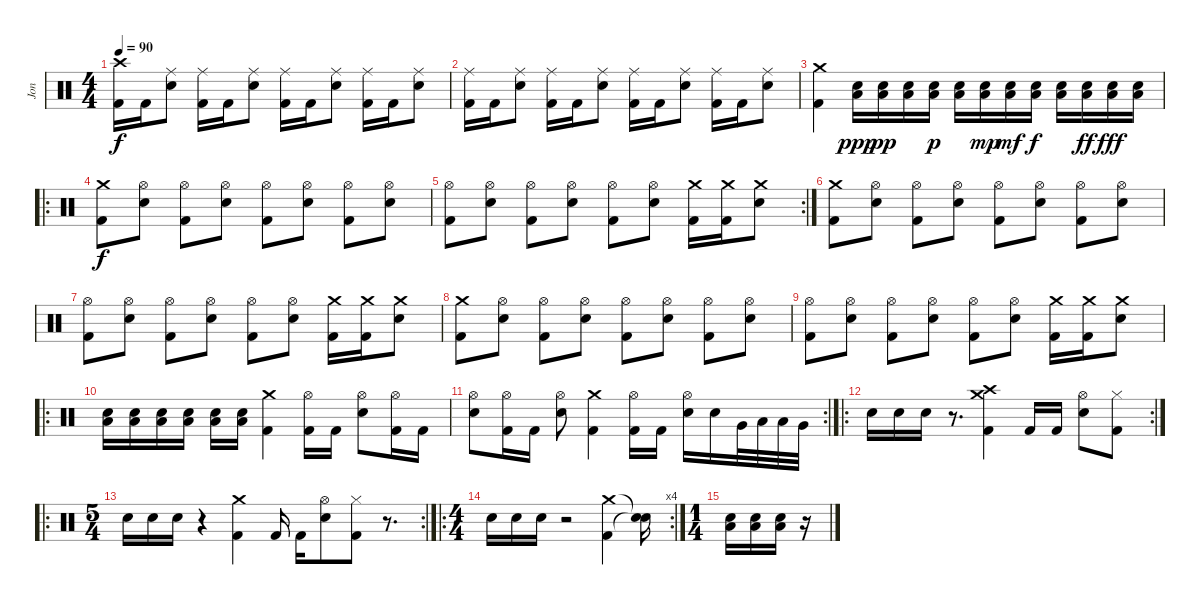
\track ("Jon" "Jon") {instrument percussion}
\staff {score}
\articulation defaults
\ts (4 4)
\tempo 90
\clef neutral
\ks c
("Crash high (hit)" "Kick (hit) 2").16{dy f} "Kick (hit) 2".16 ("Ride (middle)" "Snare (hit) 2").8 ("Ride (middle)" "Kick (hit) 2").16 "Kick (hit) 2".16 ("Ride (middle)" "Snare (hit) 2").8 ("Ride (middle)" "Kick (hit) 2").16 "Kick (hit) 2".16 ("Ride (middle)" "Snare (hit) 2").8 ("Ride (middle)" "Kick (hit) 2").16 "Kick (hit) 2".16 ("Ride (middle)" "Snare (hit) 2").8 |
("Ride (middle)" "Kick (hit) 2").16 "Kick (hit) 2".16 ("Ride (middle)" "Snare (hit) 2").8 ("Ride (middle)" "Kick (hit) 2").16 "Kick (hit) 2".16 ("Ride (middle)" "Snare (hit) 2").8 ("Ride (middle)" "Kick (hit) 2").16 "Kick (hit) 2".16 ("Ride (middle)" "Snare (hit) 2").8 ("Ride (middle)" "Kick (hit) 2").16 "Kick (hit) 2".16 ("Ride (middle)" "Snare (hit) 2").8 |
("Crash medium (hit)" "Kick (hit) 2").4 ("Snare (hit) 2" "Low Floor Tom (hit)").16{dy ppp} ("Snare (hit) 2" "Low Floor Tom (hit)").16{dy pp} ("Snare (hit) 2" "Low Floor Tom (hit)").16 ("Snare (hit) 2" "Low Floor Tom (hit)").16{dy p} ("Snare (hit) 2" "Low Floor Tom (hit)").16 ("Snare (hit) 2" "Low Floor Tom (hit)").16{dy mp} ("Snare (hit) 2" "Low Floor Tom (hit)").16{dy mf} ("Snare (hit) 2" "Low Floor Tom (hit)").16{dy f} ("Snare (hit) 2" "Low Floor Tom (hit)").16 ("Snare (hit) 2" "Low Floor Tom (hit)").16{dy ff} ("Snare (hit) 2" "Low Floor Tom (hit)").16{dy fff} ("Snare (hit) 2" "Low Floor Tom (hit)").16 |
\ro
("Crash medium (hit)" "Kick (hit) 2").8{dy f} ("Hi-Hat (open)" "Snare (hit) 2").8 ("Hi-Hat (open)" "Kick (hit) 2").8 ("Hi-Hat (open)" "Snare (hit) 2").8 ("Hi-Hat (open)" "Kick (hit) 2").8 ("Hi-Hat (open)" "Snare (hit) 2").8 ("Hi-Hat (open)" "Kick (hit) 2").8 ("Hi-Hat (open)" "Snare (hit) 2").8 |
\rc 2
("Hi-Hat (open)" "Kick (hit) 2").8 ("Hi-Hat (open)" "Snare (hit) 2").8 ("Hi-Hat (open)" "Kick (hit) 2").8 ("Hi-Hat (open)" "Snare (hit) 2").8 ("Hi-Hat (open)" "Kick (hit) 2").8 ("Hi-Hat (open)" "Snare (hit) 2").8 ("Crash medium (hit)" "Kick (hit) 2").16 ("Crash medium (hit)" "Kick (hit) 2").16 ("Crash medium (hit)" "Snare (hit) 2").8 |
("Crash medium (hit)" "Kick (hit) 2").8 ("Hi-Hat (open)" "Snare (hit) 2").8 ("Hi-Hat (open)" "Kick (hit) 2").8 ("Hi-Hat (open)" "Snare (hit) 2").8 ("Hi-Hat (open)" "Kick (hit) 2").8 ("Hi-Hat (open)" "Snare (hit) 2").8 ("Hi-Hat (open)" "Kick (hit) 2").8 ("Hi-Hat (open)" "Snare (hit) 2").8 |
("Hi-Hat (open)" "Kick (hit) 2").8 ("Hi-Hat (open)" "Snare (hit) 2").8 ("Hi-Hat (open)" "Kick (hit) 2").8 ("Hi-Hat (open)" "Snare (hit) 2").8 ("Hi-Hat (open)" "Kick (hit) 2").8 ("Hi-Hat (open)" "Snare (hit) 2").8 ("Crash medium (hit)" "Kick (hit) 2").16 ("Crash medium (hit)" "Kick (hit) 2").16 ("Crash medium (hit)" "Snare (hit) 2").8 |
("Crash medium (hit)" "Kick (hit) 2").8 ("Hi-Hat (open)" "Snare (hit) 2").8 ("Hi-Hat (open)" "Kick (hit) 2").8 ("Hi-Hat (open)" "Snare (hit) 2").8 ("Hi-Hat (open)" "Kick (hit) 2").8 ("Hi-Hat (open)" "Snare (hit) 2").8 ("Hi-Hat (open)" "Kick (hit) 2").8 ("Hi-Hat (open)" "Snare (hit) 2").8 |
("Hi-Hat (open)" "Kick (hit) 2").8 ("Hi-Hat (open)" "Snare (hit) 2").8 ("Hi-Hat (open)" "Kick (hit) 2").8 ("Hi-Hat (open)" "Snare (hit) 2").8 ("Hi-Hat (open)" "Kick (hit) 2").8 ("Hi-Hat (open)" "Snare (hit) 2").8 ("Crash medium (hit)" "Kick (hit) 2").16 ("Crash medium (hit)" "Kick (hit) 2").16 ("Crash medium (hit)" "Snare (hit) 2").8 |
\ro
("Low Floor Tom (hit)" "Snare (hit) 2").16 ("Low Floor Tom (hit)" "Snare (hit) 2").16 ("Low Floor Tom (hit)" "Snare (hit) 2").16 ("Low Floor Tom (hit)" "Snare (hit) 2").16 ("Low Floor Tom (hit)" "Snare (hit) 2").16 ("Low Floor Tom (hit)" "Snare (hit) 2").16 ("Crash medium (hit)" "Kick (hit) 2").4 ("Hi-Hat (open)" "Kick (hit) 2").16 "Kick (hit) 2".16 ("Hi-Hat (open)" "Snare (hit) 2").8 ("Hi-Hat (open)" "Kick (hit) 2").16 "Kick (hit) 2".16 |
\rc 2
("Hi-Hat (open)" "Snare (hit) 2").8 ("Hi-Hat (open)" "Kick (hit) 2").16 "Kick (hit) 2".16 ("Hi-Hat (open)" "Snare (hit) 2").8 ("Crash medium (hit)" "Kick (hit) 2").4 ("Hi-Hat (open)" "Kick (hit) 2").16 "Kick (hit) 2".16 ("Hi-Hat (open)" "Snare (hit) 2").16 "Snare (hit) 2".16 "Very Low Tom (hit)".32 "Low Floor Tom (hit)".32 "Low Tom (hit)".32 "Very Low Tom (hit)".32 |
\ro
\rc 2 "Snare (hit) 2".16 "Snare (hit) 2".16 "Snare (hit) 2".16
r.8{d} ("Crash medium (hit)" "Crash high (hit)" "Kick (hit) 2").4 "Kick (hit) 2".16 "Kick (hit) 2".16 ("Hi-Hat (open)" "Snare (hit) 2").8 ("Hi-Hat (closed)" "Kick (hit) 2").8 |
\ro
\rc 2
\ts (5 4)
"Snare (hit) 2".16 "Snare (hit) 2".16 "Snare (hit) 2".16 r.4 ("Crash medium (hit)" "Kick (hit) 2").4 "Kick (hit) 2".16 "Kick (hit) 2".16 ("Hi-Hat (open)" "Snare (hit) 2").8 ("Hi-Hat (closed)" "Kick (hit) 2").8 r.8{d} |
\ro
\rc 4
\ts (4 4)
"Snare (hit) 2".16 "Snare (hit) 2".16 "Snare (hit) 2".16 r.2 ("Crash medium (hit)" "Kick (hit) 2").4 ("Snare (hit)"{t} "Snare (hit)"{t}).16 |
\ts (1 4)
("Low Floor Tom (hit)" "Snare (hit) 2").16 ("Low Floor Tom (hit)" "Snare (hit) 2").16 ("Low Floor Tom (hit)" "Snare (hit) 2").16 r.16
